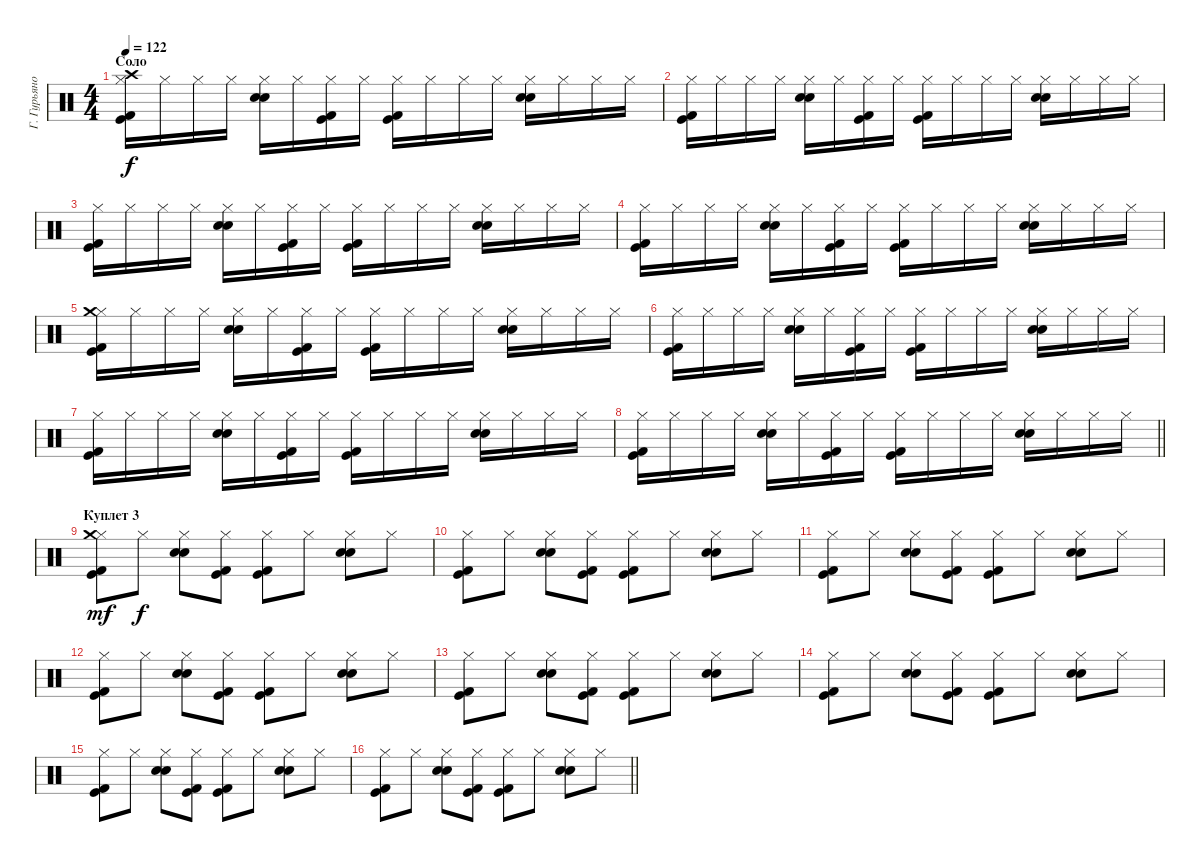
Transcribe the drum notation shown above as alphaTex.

\track ("Г. Гурьянов" "Г. Гурьяно") {instrument percussion}
\staff
\articulation defaults
\ts (4 4)
\section ("" "Соло")
\tempo 122
\clef neutral
\ks c
("Hi-Hat (closed)" "Crash high (hit)" "Kick (hit)" "Kick (hit) 2").16{dy f} "Hi-Hat (closed)".16 "Hi-Hat (closed)".16 "Hi-Hat (closed)".16 ("Hi-Hat (closed)" "Electric Snare (hit)" "Snare (hit) 2").16 "Hi-Hat (closed)".16 ("Hi-Hat (closed)" "Kick (hit)" "Kick (hit) 2").16 "Hi-Hat (closed)".16 ("Hi-Hat (closed)" "Kick (hit)" "Kick (hit) 2").16 "Hi-Hat (closed)".16 "Hi-Hat (closed)".16 "Hi-Hat (closed)".16 ("Hi-Hat (closed)" "Electric Snare (hit)" "Snare (hit) 2").16 "Hi-Hat (closed)".16 "Hi-Hat (closed)".16 "Hi-Hat (closed)".16 |
("Hi-Hat (closed)" "Kick (hit)" "Kick (hit) 2").16 "Hi-Hat (closed)".16 "Hi-Hat (closed)".16 "Hi-Hat (closed)".16 ("Hi-Hat (closed)" "Electric Snare (hit)" "Snare (hit) 2").16 "Hi-Hat (closed)".16 ("Hi-Hat (closed)" "Kick (hit)" "Kick (hit) 2").16 "Hi-Hat (closed)".16 ("Hi-Hat (closed)" "Kick (hit)" "Kick (hit) 2").16 "Hi-Hat (closed)".16 "Hi-Hat (closed)".16 "Hi-Hat (closed)".16 ("Hi-Hat (closed)" "Electric Snare (hit)" "Snare (hit) 2").16 "Hi-Hat (closed)".16 "Hi-Hat (closed)".16 "Hi-Hat (closed)".16 |
("Hi-Hat (closed)" "Kick (hit)" "Kick (hit) 2").16 "Hi-Hat (closed)".16 "Hi-Hat (closed)".16 "Hi-Hat (closed)".16 ("Hi-Hat (closed)" "Electric Snare (hit)" "Snare (hit) 2").16 "Hi-Hat (closed)".16 ("Hi-Hat (closed)" "Kick (hit)" "Kick (hit) 2").16 "Hi-Hat (closed)".16 ("Hi-Hat (closed)" "Kick (hit)" "Kick (hit) 2").16 "Hi-Hat (closed)".16 "Hi-Hat (closed)".16 "Hi-Hat (closed)".16 ("Hi-Hat (closed)" "Electric Snare (hit)" "Snare (hit) 2").16 "Hi-Hat (closed)".16 "Hi-Hat (closed)".16 "Hi-Hat (closed)".16 |
("Hi-Hat (closed)" "Kick (hit)" "Kick (hit) 2").16 "Hi-Hat (closed)".16 "Hi-Hat (closed)".16 "Hi-Hat (closed)".16 ("Hi-Hat (closed)" "Electric Snare (hit)" "Snare (hit) 2").16 "Hi-Hat (closed)".16 ("Hi-Hat (closed)" "Kick (hit)" "Kick (hit) 2").16 "Hi-Hat (closed)".16 ("Hi-Hat (closed)" "Kick (hit)" "Kick (hit) 2").16 "Hi-Hat (closed)".16 "Hi-Hat (closed)".16 "Hi-Hat (closed)".16 ("Hi-Hat (closed)" "Electric Snare (hit)" "Snare (hit) 2").16 "Hi-Hat (closed)".16 "Hi-Hat (closed)".16 "Hi-Hat (closed)".16 |
("Hi-Hat (closed)" "Crash medium (hit)" "Kick (hit)" "Kick (hit) 2").16 "Hi-Hat (closed)".16 "Hi-Hat (closed)".16 "Hi-Hat (closed)".16 ("Hi-Hat (closed)" "Electric Snare (hit)" "Snare (hit) 2").16 "Hi-Hat (closed)".16 ("Hi-Hat (closed)" "Kick (hit)" "Kick (hit) 2").16 "Hi-Hat (closed)".16 ("Hi-Hat (closed)" "Kick (hit)" "Kick (hit) 2").16 "Hi-Hat (closed)".16 "Hi-Hat (closed)".16 "Hi-Hat (closed)".16 ("Hi-Hat (closed)" "Electric Snare (hit)" "Snare (hit) 2").16 "Hi-Hat (closed)".16 "Hi-Hat (closed)".16 "Hi-Hat (closed)".16 |
("Hi-Hat (closed)" "Kick (hit)" "Kick (hit) 2").16 "Hi-Hat (closed)".16 "Hi-Hat (closed)".16 "Hi-Hat (closed)".16 ("Hi-Hat (closed)" "Electric Snare (hit)" "Snare (hit) 2").16 "Hi-Hat (closed)".16 ("Hi-Hat (closed)" "Kick (hit)" "Kick (hit) 2").16 "Hi-Hat (closed)".16 ("Hi-Hat (closed)" "Kick (hit)" "Kick (hit) 2").16 "Hi-Hat (closed)".16 "Hi-Hat (closed)".16 "Hi-Hat (closed)".16 ("Hi-Hat (closed)" "Electric Snare (hit)" "Snare (hit) 2").16 "Hi-Hat (closed)".16 "Hi-Hat (closed)".16 "Hi-Hat (closed)".16 |
("Hi-Hat (closed)" "Kick (hit)" "Kick (hit) 2").16 "Hi-Hat (closed)".16 "Hi-Hat (closed)".16 "Hi-Hat (closed)".16 ("Hi-Hat (closed)" "Electric Snare (hit)" "Snare (hit) 2").16 "Hi-Hat (closed)".16 ("Hi-Hat (closed)" "Kick (hit)" "Kick (hit) 2").16 "Hi-Hat (closed)".16 ("Hi-Hat (closed)" "Kick (hit)" "Kick (hit) 2").16 "Hi-Hat (closed)".16 "Hi-Hat (closed)".16 "Hi-Hat (closed)".16 ("Hi-Hat (closed)" "Electric Snare (hit)" "Snare (hit) 2").16 "Hi-Hat (closed)".16 "Hi-Hat (closed)".16 "Hi-Hat (closed)".16 |
\barLineRight lightlight
("Hi-Hat (closed)" "Kick (hit)" "Kick (hit) 2").16 "Hi-Hat (closed)".16 "Hi-Hat (closed)".16 "Hi-Hat (closed)".16 ("Hi-Hat (closed)" "Electric Snare (hit)" "Snare (hit) 2").16 "Hi-Hat (closed)".16 ("Hi-Hat (closed)" "Kick (hit)" "Kick (hit) 2").16 "Hi-Hat (closed)".16 ("Hi-Hat (closed)" "Kick (hit)" "Kick (hit) 2").16 "Hi-Hat (closed)".16 "Hi-Hat (closed)".16 "Hi-Hat (closed)".16 ("Hi-Hat (closed)" "Electric Snare (hit)" "Snare (hit) 2").16 "Hi-Hat (closed)".16 "Hi-Hat (closed)".16 "Hi-Hat (closed)".16 |
\section ("" "Куплет 3")
("Hi-Hat (closed)" "Crash medium (hit)" "Kick (hit)" "Kick (hit) 2").8{dy mf} "Hi-Hat (closed)".8{dy f} ("Hi-Hat (closed)" "Electric Snare (hit)" "Snare (hit) 2").8 ("Hi-Hat (closed)" "Kick (hit)" "Kick (hit) 2").8 ("Hi-Hat (closed)" "Kick (hit)" "Kick (hit) 2").8 "Hi-Hat (closed)".8 ("Hi-Hat (closed)" "Electric Snare (hit)" "Snare (hit) 2").8 "Hi-Hat (closed)".8 |
("Hi-Hat (closed)" "Kick (hit)" "Kick (hit) 2").8 "Hi-Hat (closed)".8 ("Hi-Hat (closed)" "Electric Snare (hit)" "Snare (hit) 2").8 ("Hi-Hat (closed)" "Kick (hit)" "Kick (hit) 2").8 ("Hi-Hat (closed)" "Kick (hit)" "Kick (hit) 2").8 "Hi-Hat (closed)".8 ("Hi-Hat (closed)" "Electric Snare (hit)" "Snare (hit) 2").8 "Hi-Hat (closed)".8 |
("Hi-Hat (closed)" "Kick (hit)" "Kick (hit) 2").8 "Hi-Hat (closed)".8 ("Hi-Hat (closed)" "Electric Snare (hit)" "Snare (hit) 2").8 ("Hi-Hat (closed)" "Kick (hit)" "Kick (hit) 2").8 ("Hi-Hat (closed)" "Kick (hit)" "Kick (hit) 2").8 "Hi-Hat (closed)".8 ("Hi-Hat (closed)" "Electric Snare (hit)" "Snare (hit) 2").8 "Hi-Hat (closed)".8 |
("Hi-Hat (closed)" "Kick (hit)" "Kick (hit) 2").8 "Hi-Hat (closed)".8 ("Hi-Hat (closed)" "Electric Snare (hit)" "Snare (hit) 2").8 ("Hi-Hat (closed)" "Kick (hit)" "Kick (hit) 2").8 ("Hi-Hat (closed)" "Kick (hit)" "Kick (hit) 2").8 "Hi-Hat (closed)".8 ("Hi-Hat (closed)" "Electric Snare (hit)" "Snare (hit) 2").8 "Hi-Hat (closed)".8 |
("Hi-Hat (closed)" "Kick (hit)" "Kick (hit) 2").8 "Hi-Hat (closed)".8 ("Hi-Hat (closed)" "Electric Snare (hit)" "Snare (hit) 2").8 ("Hi-Hat (closed)" "Kick (hit)" "Kick (hit) 2").8 ("Hi-Hat (closed)" "Kick (hit)" "Kick (hit) 2").8 "Hi-Hat (closed)".8 ("Hi-Hat (closed)" "Electric Snare (hit)" "Snare (hit) 2").8 "Hi-Hat (closed)".8 |
("Hi-Hat (closed)" "Kick (hit)" "Kick (hit) 2").8 "Hi-Hat (closed)".8 ("Hi-Hat (closed)" "Electric Snare (hit)" "Snare (hit) 2").8 ("Hi-Hat (closed)" "Kick (hit)" "Kick (hit) 2").8 ("Hi-Hat (closed)" "Kick (hit)" "Kick (hit) 2").8 "Hi-Hat (closed)".8 ("Hi-Hat (closed)" "Electric Snare (hit)" "Snare (hit) 2").8 "Hi-Hat (closed)".8 |
("Hi-Hat (closed)" "Kick (hit)" "Kick (hit) 2").8 "Hi-Hat (closed)".8 ("Hi-Hat (closed)" "Electric Snare (hit)" "Snare (hit) 2").8 ("Hi-Hat (closed)" "Kick (hit)" "Kick (hit) 2").8 ("Hi-Hat (closed)" "Kick (hit)" "Kick (hit) 2").8 "Hi-Hat (closed)".8 ("Hi-Hat (closed)" "Electric Snare (hit)" "Snare (hit) 2").8 "Hi-Hat (closed)".8 |
\barLineRight lightlight
("Hi-Hat (closed)" "Kick (hit)" "Kick (hit) 2").8 "Hi-Hat (closed)".8 ("Hi-Hat (closed)" "Electric Snare (hit)" "Snare (hit) 2").8 ("Hi-Hat (closed)" "Kick (hit)" "Kick (hit) 2").8 ("Hi-Hat (closed)" "Kick (hit)" "Kick (hit) 2").8 "Hi-Hat (closed)".8 ("Hi-Hat (closed)" "Electric Snare (hit)" "Snare (hit) 2").8 "Hi-Hat (closed)".8
